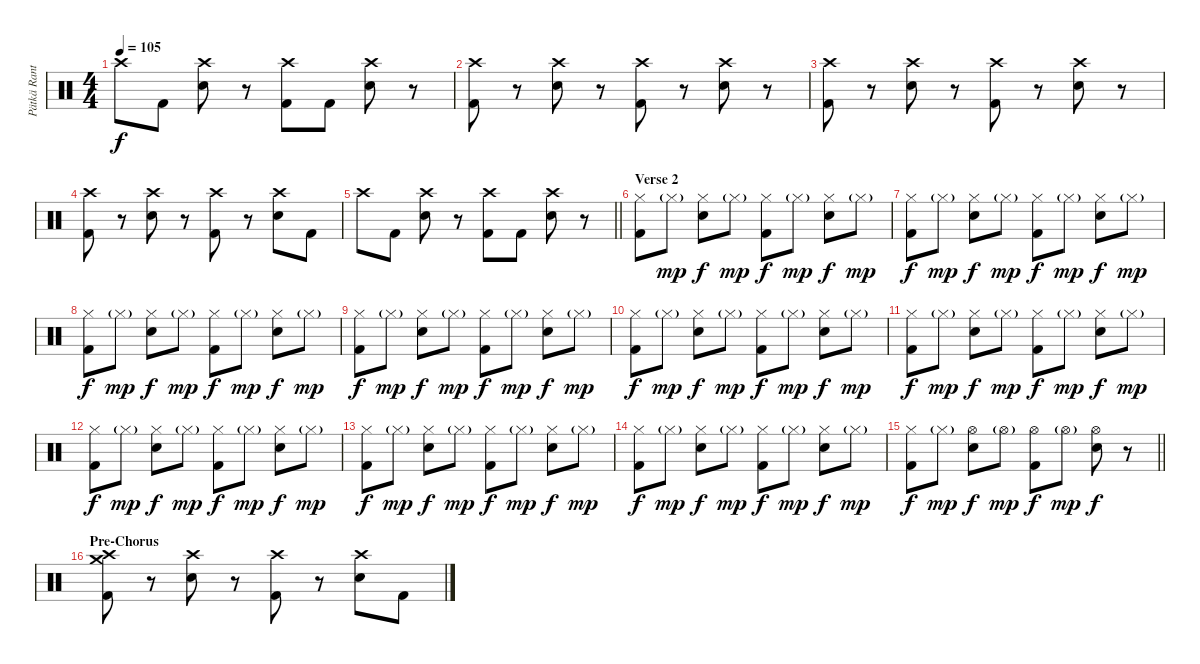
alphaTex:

\track ("Pätkä Rantala (Drums)" "Pätkä Rant") {instrument percussion}
\staff {score}
\articulation defaults
\ts (4 4)
\tempo 105
\clef neutral
\ks c "Crash high (hit)".8{dy f} "Kick (hit) 2".8
("Crash high (hit)" "Snare (hit) 2").8 r.8 ("Crash high (hit)" "Kick (hit) 2").8 "Kick (hit) 2".8 ("Crash high (hit)" "Snare (hit) 2").8 r.8 |
("Crash high (hit)" "Kick (hit) 2").8 r.8 ("Crash high (hit)" "Snare (hit) 2").8 r.8 ("Crash high (hit)" "Kick (hit) 2").8 r.8 ("Crash high (hit)" "Snare (hit) 2").8 r.8 |
("Crash high (hit)" "Kick (hit) 2").8 r.8 ("Crash high (hit)" "Snare (hit) 2").8 r.8 ("Crash high (hit)" "Kick (hit) 2").8 r.8 ("Crash high (hit)" "Snare (hit) 2").8 r.8 |
("Crash high (hit)" "Kick (hit) 2").8 r.8 ("Crash high (hit)" "Snare (hit) 2").8 r.8 ("Crash high (hit)" "Kick (hit) 2").8 r.8 ("Crash high (hit)" "Snare (hit) 2").8 "Kick (hit) 2".8 |
\barLineRight lightlight "Crash high (hit)".8 "Kick (hit) 2".8
("Crash high (hit)" "Snare (hit) 2").8 r.8 ("Crash high (hit)" "Kick (hit) 2").8 "Kick (hit) 2".8 ("Crash high (hit)" "Snare (hit) 2").8 r.8 |
\section ("" "Verse 2")
("Hi-Hat (closed)" "Kick (hit) 2").8 "Hi-Hat (closed)"{g}.8{dy mp} ("Hi-Hat (closed)" "Snare (hit) 2").8{dy f} "Hi-Hat (closed)"{g}.8{dy mp} ("Hi-Hat (closed)" "Kick (hit) 2").8{dy f} "Hi-Hat (closed)"{g}.8{dy mp} ("Hi-Hat (closed)" "Snare (hit) 2").8{dy f} "Hi-Hat (closed)"{g}.8{dy mp} |
("Hi-Hat (closed)" "Kick (hit) 2").8{dy f} "Hi-Hat (closed)"{g}.8{dy mp} ("Hi-Hat (closed)" "Snare (hit) 2").8{dy f} "Hi-Hat (closed)"{g}.8{dy mp} ("Hi-Hat (closed)" "Kick (hit) 2").8{dy f} "Hi-Hat (closed)"{g}.8{dy mp} ("Hi-Hat (closed)" "Snare (hit) 2").8{dy f} "Hi-Hat (closed)"{g}.8{dy mp} |
("Hi-Hat (closed)" "Kick (hit) 2").8{dy f} "Hi-Hat (closed)"{g}.8{dy mp} ("Hi-Hat (closed)" "Snare (hit) 2").8{dy f} "Hi-Hat (closed)"{g}.8{dy mp} ("Hi-Hat (closed)" "Kick (hit) 2").8{dy f} "Hi-Hat (closed)"{g}.8{dy mp} ("Hi-Hat (closed)" "Snare (hit) 2").8{dy f} "Hi-Hat (closed)"{g}.8{dy mp} |
("Hi-Hat (closed)" "Kick (hit) 2").8{dy f} "Hi-Hat (closed)"{g}.8{dy mp} ("Hi-Hat (closed)" "Snare (hit) 2").8{dy f} "Hi-Hat (closed)"{g}.8{dy mp} ("Hi-Hat (closed)" "Kick (hit) 2").8{dy f} "Hi-Hat (closed)"{g}.8{dy mp} ("Hi-Hat (closed)" "Snare (hit) 2").8{dy f} "Hi-Hat (closed)"{g}.8{dy mp} |
("Hi-Hat (closed)" "Kick (hit) 2").8{dy f} "Hi-Hat (closed)"{g}.8{dy mp} ("Hi-Hat (closed)" "Snare (hit) 2").8{dy f} "Hi-Hat (closed)"{g}.8{dy mp} ("Hi-Hat (closed)" "Kick (hit) 2").8{dy f} "Hi-Hat (closed)"{g}.8{dy mp} ("Hi-Hat (closed)" "Snare (hit) 2").8{dy f} "Hi-Hat (closed)"{g}.8{dy mp} |
("Hi-Hat (closed)" "Kick (hit) 2").8{dy f} "Hi-Hat (closed)"{g}.8{dy mp} ("Hi-Hat (closed)" "Snare (hit) 2").8{dy f} "Hi-Hat (closed)"{g}.8{dy mp} ("Hi-Hat (closed)" "Kick (hit) 2").8{dy f} "Hi-Hat (closed)"{g}.8{dy mp} ("Hi-Hat (closed)" "Snare (hit) 2").8{dy f} "Hi-Hat (closed)"{g}.8{dy mp} |
("Hi-Hat (closed)" "Kick (hit) 2").8{dy f} "Hi-Hat (closed)"{g}.8{dy mp} ("Hi-Hat (closed)" "Snare (hit) 2").8{dy f} "Hi-Hat (closed)"{g}.8{dy mp} ("Hi-Hat (closed)" "Kick (hit) 2").8{dy f} "Hi-Hat (closed)"{g}.8{dy mp} ("Hi-Hat (closed)" "Snare (hit) 2").8{dy f} "Hi-Hat (closed)"{g}.8{dy mp} |
("Hi-Hat (closed)" "Kick (hit) 2").8{dy f} "Hi-Hat (closed)"{g}.8{dy mp} ("Hi-Hat (closed)" "Snare (hit) 2").8{dy f} "Hi-Hat (closed)"{g}.8{dy mp} ("Hi-Hat (closed)" "Kick (hit) 2").8{dy f} "Hi-Hat (closed)"{g}.8{dy mp} ("Hi-Hat (closed)" "Snare (hit) 2").8{dy f} "Hi-Hat (closed)"{g}.8{dy mp} |
("Hi-Hat (closed)" "Kick (hit) 2").8{dy f} "Hi-Hat (closed)"{g}.8{dy mp} ("Hi-Hat (closed)" "Snare (hit) 2").8{dy f} "Hi-Hat (closed)"{g}.8{dy mp} ("Hi-Hat (closed)" "Kick (hit) 2").8{dy f} "Hi-Hat (closed)"{g}.8{dy mp} ("Hi-Hat (closed)" "Snare (hit) 2").8{dy f} "Hi-Hat (closed)"{g}.8{dy mp} |
\barLineRight lightlight
("Hi-Hat (closed)" "Kick (hit) 2").8{dy f} "Hi-Hat (closed)"{g}.8{dy mp} ("Hi-Hat (open)" "Snare (hit) 2").8{dy f} "Hi-Hat (open)"{g}.8{dy mp} ("Hi-Hat (open)" "Kick (hit) 2").8{dy f} "Hi-Hat (open)"{g}.8{dy mp} ("Hi-Hat (open)" "Snare (hit) 2").8{dy f} r.8 |
\section ("" "Pre-Chorus")
("Crash medium (hit)" "Crash high (hit)" "Kick (hit) 2").8 r.8 ("Crash high (hit)" "Snare (hit) 2").8 r.8 ("Crash high (hit)" "Kick (hit) 2").8 r.8 ("Crash high (hit)" "Snare (hit) 2").8 "Kick (hit) 2".8
